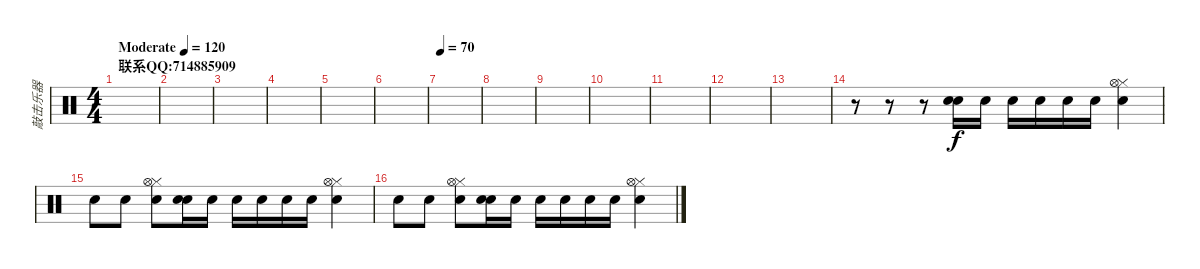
\track ("敲击乐器" "敲击乐器") {instrument percussion}
\staff {score}
\articulation defaults
\ts (4 4)
\section ("" "联系QQ:714885909")
\tempo (120 "Moderate")
\clef neutral
\ks c
|
|
|
|
|
|
\tempo 70
|
|
|
|
|
|
|
r.8 r.8 r.8 ("Snare (hit) 2" "Snare (hit) 2").16 "Snare (hit) 2".16 "Snare (hit) 2".16 "Snare (hit) 2".16 "Snare (hit) 2".16 "Snare (hit) 2".16 ("Electric Snare (hit)" "Hi-Hat (closed)" "Hi-Hat (open)").4 |
"Snare (hit) 2".8 "Snare (hit) 2".8 ("Electric Snare (hit)" "Hi-Hat (closed)" "Hi-Hat (open)").8 ("Snare (hit) 2" "Snare (hit) 2").16 "Snare (hit) 2".16 "Snare (hit) 2".16 "Snare (hit) 2".16 "Snare (hit) 2".16 "Snare (hit) 2".16 ("Electric Snare (hit)" "Hi-Hat (closed)" "Hi-Hat (open)").4 |
"Snare (hit) 2".8 "Snare (hit) 2".8 ("Electric Snare (hit)" "Hi-Hat (closed)" "Hi-Hat (open)").8 ("Snare (hit) 2" "Snare (hit) 2").16 "Snare (hit) 2".16 "Snare (hit) 2".16 "Snare (hit) 2".16 "Snare (hit) 2".16 "Snare (hit) 2".16 ("Electric Snare (hit)" "Hi-Hat (closed)" "Hi-Hat (open)").4
